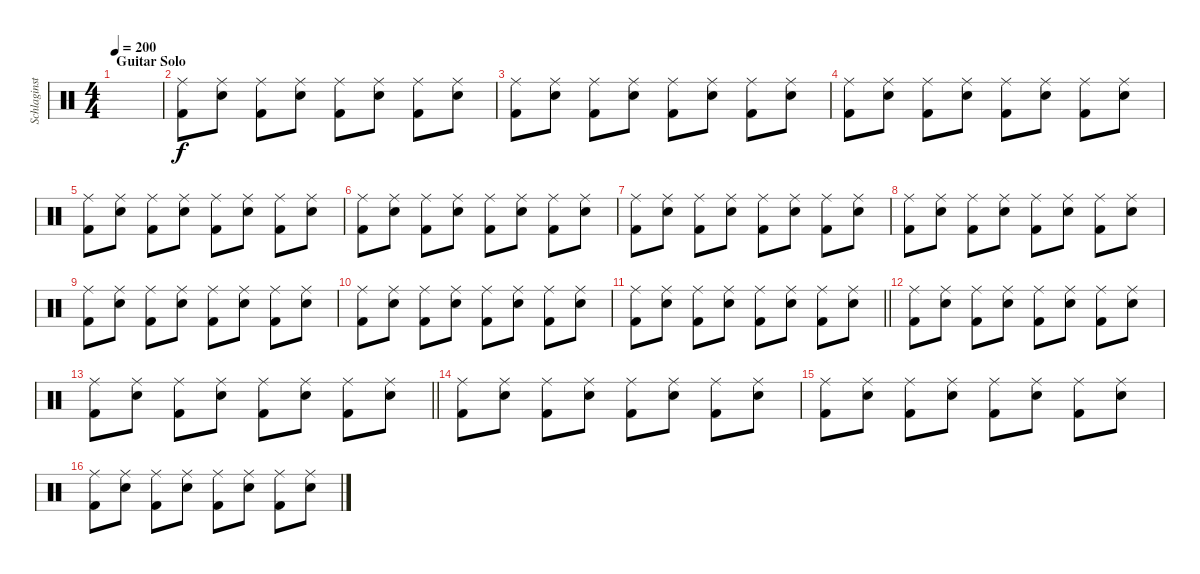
\track ("Schlaginstrumente - Auswahl" "Schlaginst") {instrument percussion}
\staff {score}
\articulation defaults
\ts (4 4)
\section ("" "Guitar Solo")
\tempo 200
\clef neutral
\ks c
|
("Ride (middle)" "Kick (hit) 2").8 ("Ride (middle)" "Electric Snare (hit)").8 ("Ride (middle)" "Kick (hit) 2").8 ("Ride (middle)" "Electric Snare (hit)").8 ("Ride (middle)" "Kick (hit) 2").8 ("Ride (middle)" "Electric Snare (hit)").8 ("Ride (middle)" "Kick (hit) 2").8 ("Ride (middle)" "Electric Snare (hit)").8 |
("Ride (middle)" "Kick (hit) 2").8 ("Ride (middle)" "Electric Snare (hit)").8 ("Ride (middle)" "Kick (hit) 2").8 ("Ride (middle)" "Electric Snare (hit)").8 ("Ride (middle)" "Kick (hit) 2").8 ("Ride (middle)" "Electric Snare (hit)").8 ("Ride (middle)" "Kick (hit) 2").8 ("Ride (middle)" "Electric Snare (hit)").8 |
("Ride (middle)" "Kick (hit) 2").8 ("Ride (middle)" "Electric Snare (hit)").8 ("Ride (middle)" "Kick (hit) 2").8 ("Ride (middle)" "Electric Snare (hit)").8 ("Ride (middle)" "Kick (hit) 2").8 ("Ride (middle)" "Electric Snare (hit)").8 ("Ride (middle)" "Kick (hit) 2").8 ("Ride (middle)" "Electric Snare (hit)").8 |
("Ride (middle)" "Kick (hit) 2").8 ("Ride (middle)" "Electric Snare (hit)").8 ("Ride (middle)" "Kick (hit) 2").8 ("Ride (middle)" "Electric Snare (hit)").8 ("Ride (middle)" "Kick (hit) 2").8 ("Ride (middle)" "Electric Snare (hit)").8 ("Ride (middle)" "Kick (hit) 2").8 ("Ride (middle)" "Electric Snare (hit)").8 |
("Ride (middle)" "Kick (hit) 2").8 ("Ride (middle)" "Electric Snare (hit)").8 ("Ride (middle)" "Kick (hit) 2").8 ("Ride (middle)" "Electric Snare (hit)").8 ("Ride (middle)" "Kick (hit) 2").8 ("Ride (middle)" "Electric Snare (hit)").8 ("Ride (middle)" "Kick (hit) 2").8 ("Ride (middle)" "Electric Snare (hit)").8 |
("Ride (middle)" "Kick (hit) 2").8 ("Ride (middle)" "Electric Snare (hit)").8 ("Ride (middle)" "Kick (hit) 2").8 ("Ride (middle)" "Electric Snare (hit)").8 ("Ride (middle)" "Kick (hit) 2").8 ("Ride (middle)" "Electric Snare (hit)").8 ("Ride (middle)" "Kick (hit) 2").8 ("Ride (middle)" "Electric Snare (hit)").8 |
("Ride (middle)" "Kick (hit) 2").8 ("Ride (middle)" "Electric Snare (hit)").8 ("Ride (middle)" "Kick (hit) 2").8 ("Ride (middle)" "Electric Snare (hit)").8 ("Ride (middle)" "Kick (hit) 2").8 ("Ride (middle)" "Electric Snare (hit)").8 ("Ride (middle)" "Kick (hit) 2").8 ("Ride (middle)" "Electric Snare (hit)").8 |
("Ride (middle)" "Kick (hit) 2").8 ("Ride (middle)" "Electric Snare (hit)").8 ("Ride (middle)" "Kick (hit) 2").8 ("Ride (middle)" "Electric Snare (hit)").8 ("Ride (middle)" "Kick (hit) 2").8 ("Ride (middle)" "Electric Snare (hit)").8 ("Ride (middle)" "Kick (hit) 2").8 ("Ride (middle)" "Electric Snare (hit)").8 |
("Ride (middle)" "Kick (hit) 2").8 ("Ride (middle)" "Electric Snare (hit)").8 ("Ride (middle)" "Kick (hit) 2").8 ("Ride (middle)" "Electric Snare (hit)").8 ("Ride (middle)" "Kick (hit) 2").8 ("Ride (middle)" "Electric Snare (hit)").8 ("Ride (middle)" "Kick (hit) 2").8 ("Ride (middle)" "Electric Snare (hit)").8 |
\barLineRight lightlight
("Ride (middle)" "Kick (hit) 2").8 ("Ride (middle)" "Electric Snare (hit)").8 ("Ride (middle)" "Kick (hit) 2").8 ("Ride (middle)" "Electric Snare (hit)").8 ("Ride (middle)" "Kick (hit) 2").8 ("Ride (middle)" "Electric Snare (hit)").8 ("Ride (middle)" "Kick (hit) 2").8 ("Ride (middle)" "Electric Snare (hit)").8 |
("Ride (middle)" "Kick (hit) 2").8 ("Ride (middle)" "Electric Snare (hit)").8 ("Ride (middle)" "Kick (hit) 2").8 ("Ride (middle)" "Electric Snare (hit)").8 ("Ride (middle)" "Kick (hit) 2").8 ("Ride (middle)" "Electric Snare (hit)").8 ("Ride (middle)" "Kick (hit) 2").8 ("Ride (middle)" "Electric Snare (hit)").8 |
\barLineRight lightlight
("Ride (middle)" "Kick (hit) 2").8 ("Ride (middle)" "Electric Snare (hit)").8 ("Ride (middle)" "Kick (hit) 2").8 ("Ride (middle)" "Electric Snare (hit)").8 ("Ride (middle)" "Kick (hit) 2").8 ("Ride (middle)" "Electric Snare (hit)").8 ("Ride (middle)" "Kick (hit) 2").8 ("Ride (middle)" "Electric Snare (hit)").8 |
("Ride (middle)" "Kick (hit) 2").8 ("Ride (middle)" "Electric Snare (hit)").8 ("Ride (middle)" "Kick (hit) 2").8 ("Ride (middle)" "Electric Snare (hit)").8 ("Ride (middle)" "Kick (hit) 2").8 ("Ride (middle)" "Electric Snare (hit)").8 ("Ride (middle)" "Kick (hit) 2").8 ("Ride (middle)" "Electric Snare (hit)").8 |
("Ride (middle)" "Kick (hit) 2").8 ("Ride (middle)" "Electric Snare (hit)").8 ("Ride (middle)" "Kick (hit) 2").8 ("Ride (middle)" "Electric Snare (hit)").8 ("Ride (middle)" "Kick (hit) 2").8 ("Ride (middle)" "Electric Snare (hit)").8 ("Ride (middle)" "Kick (hit) 2").8 ("Ride (middle)" "Electric Snare (hit)").8 |
("Ride (middle)" "Kick (hit) 2").8 ("Ride (middle)" "Electric Snare (hit)").8 ("Ride (middle)" "Kick (hit) 2").8 ("Ride (middle)" "Electric Snare (hit)").8 ("Ride (middle)" "Kick (hit) 2").8 ("Ride (middle)" "Electric Snare (hit)").8 ("Ride (middle)" "Kick (hit) 2").8 ("Ride (middle)" "Electric Snare (hit)").8
